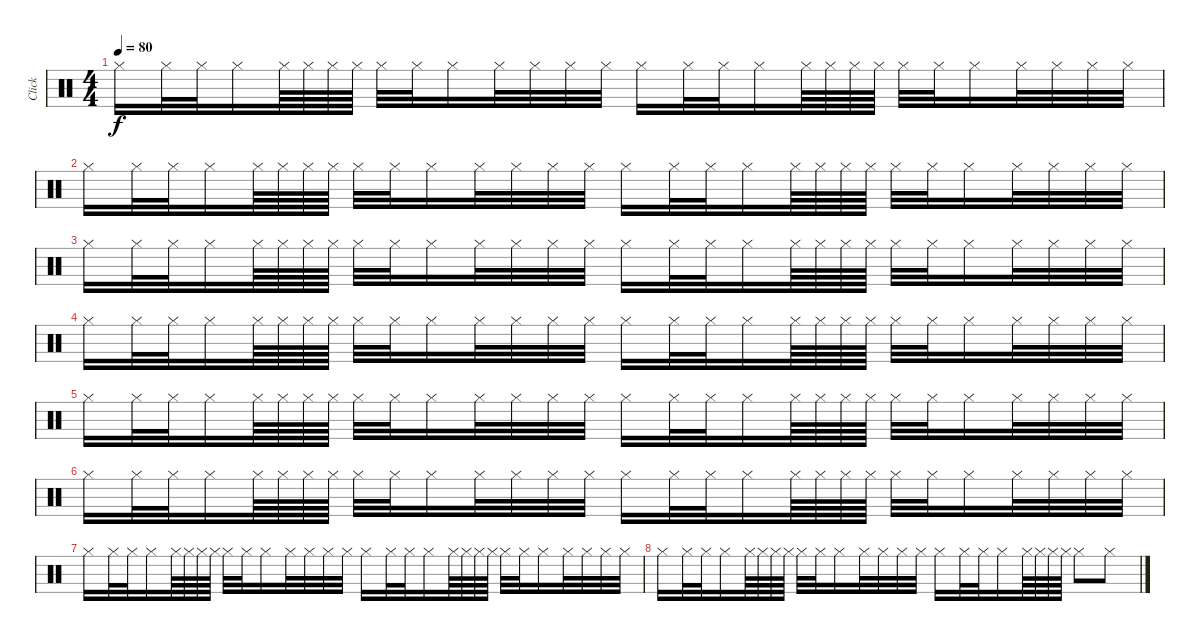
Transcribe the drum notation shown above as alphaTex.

\track ("Click" "Click") {instrument percussion}
\staff {score}
\articulation defaults
\ts (4 4)
\tempo 80
\clef neutral
\ks c "Hi-Hat (closed)".16{dy f} "Hi-Hat (closed)".32 "Hi-Hat (closed)".32 "Hi-Hat (closed)".16 "Hi-Hat (closed)".64 "Hi-Hat (closed)".64 "Hi-Hat (closed)".64 "Hi-Hat (closed)".64 "Hi-Hat (closed)".32 "Hi-Hat (closed)".32 "Hi-Hat (closed)".16 "Hi-Hat (closed)".32 "Hi-Hat (closed)".32 "Hi-Hat (closed)".32 "Hi-Hat (closed)".32 "Hi-Hat (closed)".16 "Hi-Hat (closed)".32 "Hi-Hat (closed)".32 "Hi-Hat (closed)".16 "Hi-Hat (closed)".64 "Hi-Hat (closed)".64 "Hi-Hat (closed)".64 "Hi-Hat (closed)".64 "Hi-Hat (closed)".32 "Hi-Hat (closed)".32 "Hi-Hat (closed)".16 "Hi-Hat (closed)".32 "Hi-Hat (closed)".32 "Hi-Hat (closed)".32 "Hi-Hat (closed)".32
|
"Hi-Hat (closed)".16 "Hi-Hat (closed)".32 "Hi-Hat (closed)".32 "Hi-Hat (closed)".16 "Hi-Hat (closed)".64 "Hi-Hat (closed)".64 "Hi-Hat (closed)".64 "Hi-Hat (closed)".64 "Hi-Hat (closed)".32 "Hi-Hat (closed)".32 "Hi-Hat (closed)".16 "Hi-Hat (closed)".32 "Hi-Hat (closed)".32 "Hi-Hat (closed)".32 "Hi-Hat (closed)".32 "Hi-Hat (closed)".16 "Hi-Hat (closed)".32 "Hi-Hat (closed)".32 "Hi-Hat (closed)".16 "Hi-Hat (closed)".64 "Hi-Hat (closed)".64 "Hi-Hat (closed)".64 "Hi-Hat (closed)".64 "Hi-Hat (closed)".32 "Hi-Hat (closed)".32 "Hi-Hat (closed)".16 "Hi-Hat (closed)".32 "Hi-Hat (closed)".32 "Hi-Hat (closed)".32 "Hi-Hat (closed)".32 |
"Hi-Hat (closed)".16 "Hi-Hat (closed)".32 "Hi-Hat (closed)".32 "Hi-Hat (closed)".16 "Hi-Hat (closed)".64 "Hi-Hat (closed)".64 "Hi-Hat (closed)".64 "Hi-Hat (closed)".64 "Hi-Hat (closed)".32 "Hi-Hat (closed)".32 "Hi-Hat (closed)".16 "Hi-Hat (closed)".32 "Hi-Hat (closed)".32 "Hi-Hat (closed)".32 "Hi-Hat (closed)".32 "Hi-Hat (closed)".16 "Hi-Hat (closed)".32 "Hi-Hat (closed)".32 "Hi-Hat (closed)".16 "Hi-Hat (closed)".64 "Hi-Hat (closed)".64 "Hi-Hat (closed)".64 "Hi-Hat (closed)".64 "Hi-Hat (closed)".32 "Hi-Hat (closed)".32 "Hi-Hat (closed)".16 "Hi-Hat (closed)".32 "Hi-Hat (closed)".32 "Hi-Hat (closed)".32 "Hi-Hat (closed)".32 |
"Hi-Hat (closed)".16 "Hi-Hat (closed)".32 "Hi-Hat (closed)".32 "Hi-Hat (closed)".16 "Hi-Hat (closed)".64 "Hi-Hat (closed)".64 "Hi-Hat (closed)".64 "Hi-Hat (closed)".64 "Hi-Hat (closed)".32 "Hi-Hat (closed)".32 "Hi-Hat (closed)".16 "Hi-Hat (closed)".32 "Hi-Hat (closed)".32 "Hi-Hat (closed)".32 "Hi-Hat (closed)".32 "Hi-Hat (closed)".16 "Hi-Hat (closed)".32 "Hi-Hat (closed)".32 "Hi-Hat (closed)".16 "Hi-Hat (closed)".64 "Hi-Hat (closed)".64 "Hi-Hat (closed)".64 "Hi-Hat (closed)".64 "Hi-Hat (closed)".32 "Hi-Hat (closed)".32 "Hi-Hat (closed)".16 "Hi-Hat (closed)".32 "Hi-Hat (closed)".32 "Hi-Hat (closed)".32 "Hi-Hat (closed)".32 |
"Hi-Hat (closed)".16 "Hi-Hat (closed)".32 "Hi-Hat (closed)".32 "Hi-Hat (closed)".16 "Hi-Hat (closed)".64 "Hi-Hat (closed)".64 "Hi-Hat (closed)".64 "Hi-Hat (closed)".64 "Hi-Hat (closed)".32 "Hi-Hat (closed)".32 "Hi-Hat (closed)".16 "Hi-Hat (closed)".32 "Hi-Hat (closed)".32 "Hi-Hat (closed)".32 "Hi-Hat (closed)".32 "Hi-Hat (closed)".16 "Hi-Hat (closed)".32 "Hi-Hat (closed)".32 "Hi-Hat (closed)".16 "Hi-Hat (closed)".64 "Hi-Hat (closed)".64 "Hi-Hat (closed)".64 "Hi-Hat (closed)".64 "Hi-Hat (closed)".32 "Hi-Hat (closed)".32 "Hi-Hat (closed)".16 "Hi-Hat (closed)".32 "Hi-Hat (closed)".32 "Hi-Hat (closed)".32 "Hi-Hat (closed)".32 |
"Hi-Hat (closed)".16 "Hi-Hat (closed)".32 "Hi-Hat (closed)".32 "Hi-Hat (closed)".16 "Hi-Hat (closed)".64 "Hi-Hat (closed)".64 "Hi-Hat (closed)".64 "Hi-Hat (closed)".64 "Hi-Hat (closed)".32 "Hi-Hat (closed)".32 "Hi-Hat (closed)".16 "Hi-Hat (closed)".32 "Hi-Hat (closed)".32 "Hi-Hat (closed)".32 "Hi-Hat (closed)".32 "Hi-Hat (closed)".16 "Hi-Hat (closed)".32 "Hi-Hat (closed)".32 "Hi-Hat (closed)".16 "Hi-Hat (closed)".64 "Hi-Hat (closed)".64 "Hi-Hat (closed)".64 "Hi-Hat (closed)".64 "Hi-Hat (closed)".32 "Hi-Hat (closed)".32 "Hi-Hat (closed)".16 "Hi-Hat (closed)".32 "Hi-Hat (closed)".32 "Hi-Hat (closed)".32 "Hi-Hat (closed)".32 |
"Hi-Hat (closed)".16 "Hi-Hat (closed)".32 "Hi-Hat (closed)".32 "Hi-Hat (closed)".16 "Hi-Hat (closed)".64 "Hi-Hat (closed)".64 "Hi-Hat (closed)".64 "Hi-Hat (closed)".64 "Hi-Hat (closed)".32 "Hi-Hat (closed)".32 "Hi-Hat (closed)".16 "Hi-Hat (closed)".32 "Hi-Hat (closed)".32 "Hi-Hat (closed)".32 "Hi-Hat (closed)".32 "Hi-Hat (closed)".16 "Hi-Hat (closed)".32 "Hi-Hat (closed)".32 "Hi-Hat (closed)".16 "Hi-Hat (closed)".64 "Hi-Hat (closed)".64 "Hi-Hat (closed)".64 "Hi-Hat (closed)".64 "Hi-Hat (closed)".32 "Hi-Hat (closed)".32 "Hi-Hat (closed)".16 "Hi-Hat (closed)".32 "Hi-Hat (closed)".32 "Hi-Hat (closed)".32 "Hi-Hat (closed)".32 |
"Hi-Hat (closed)".16 "Hi-Hat (closed)".32 "Hi-Hat (closed)".32 "Hi-Hat (closed)".16 "Hi-Hat (closed)".64 "Hi-Hat (closed)".64 "Hi-Hat (closed)".64 "Hi-Hat (closed)".64 "Hi-Hat (closed)".32 "Hi-Hat (closed)".32 "Hi-Hat (closed)".16 "Hi-Hat (closed)".32 "Hi-Hat (closed)".32 "Hi-Hat (closed)".32 "Hi-Hat (closed)".32 "Hi-Hat (closed)".16 "Hi-Hat (closed)".32 "Hi-Hat (closed)".32 "Hi-Hat (closed)".16 "Hi-Hat (closed)".64 "Hi-Hat (closed)".64 "Hi-Hat (closed)".64 "Hi-Hat (closed)".64 "Hi-Hat (closed)".8 "Hi-Hat (closed)".8
